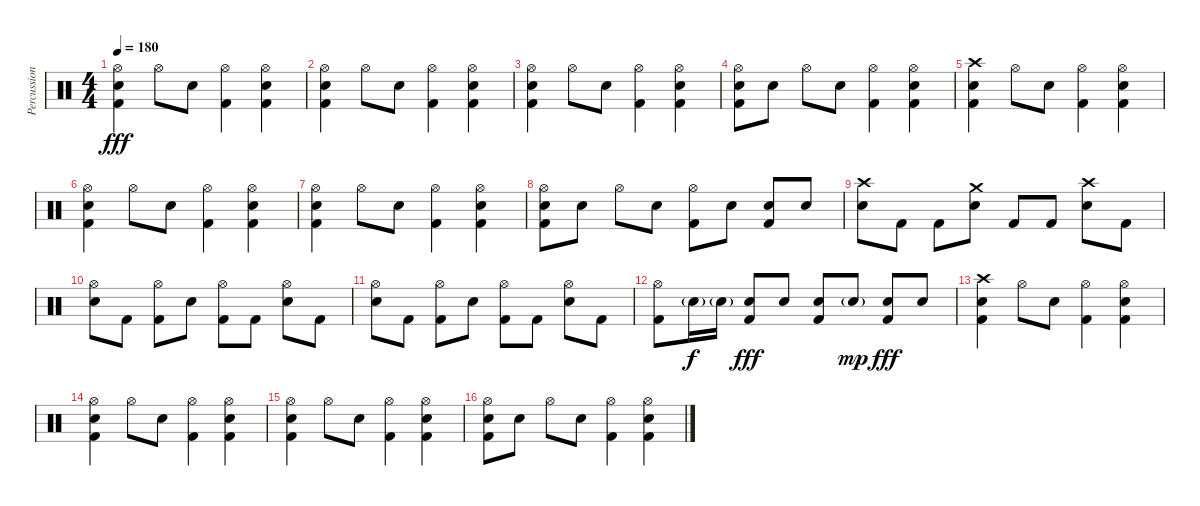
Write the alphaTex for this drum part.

\track ("Percussion" "Percussion") {instrument percussion}
\staff {score}
\articulation defaults
\ts (4 4)
\tempo 180
\clef neutral
\ks c
("Hi-Hat (open)" "Kick (hit) 2" "Electric Snare (hit)").4{dy fff} "Hi-Hat (open)".8 "Electric Snare (hit)".8 ("Hi-Hat (open)" "Kick (hit) 2").4 ("Hi-Hat (open)" "Kick (hit) 2" "Electric Snare (hit)").4 |
("Hi-Hat (open)" "Kick (hit) 2" "Electric Snare (hit)").4 "Hi-Hat (open)".8 "Electric Snare (hit)".8 ("Hi-Hat (open)" "Kick (hit) 2").4 ("Hi-Hat (open)" "Kick (hit) 2" "Electric Snare (hit)").4 |
("Hi-Hat (open)" "Kick (hit) 2" "Electric Snare (hit)").4 "Hi-Hat (open)".8 "Electric Snare (hit)".8 ("Hi-Hat (open)" "Kick (hit) 2").4 ("Hi-Hat (open)" "Kick (hit) 2" "Electric Snare (hit)").4 |
("Hi-Hat (open)" "Kick (hit) 2" "Electric Snare (hit)").8 "Electric Snare (hit)".8 "Hi-Hat (open)".8 "Electric Snare (hit)".8 ("Hi-Hat (open)" "Kick (hit) 2").4 ("Hi-Hat (open)" "Kick (hit) 2" "Electric Snare (hit)").4 |
("Crash high (hit)" "Kick (hit) 2" "Electric Snare (hit)").4 "Hi-Hat (open)".8 "Electric Snare (hit)".8 ("Hi-Hat (open)" "Kick (hit) 2").4 ("Hi-Hat (open)" "Kick (hit) 2" "Electric Snare (hit)").4 |
("Hi-Hat (open)" "Kick (hit) 2" "Electric Snare (hit)").4 "Hi-Hat (open)".8 "Electric Snare (hit)".8 ("Hi-Hat (open)" "Kick (hit) 2").4 ("Hi-Hat (open)" "Kick (hit) 2" "Electric Snare (hit)").4 |
("Hi-Hat (open)" "Kick (hit) 2" "Electric Snare (hit)").4 "Hi-Hat (open)".8 "Electric Snare (hit)".8 ("Hi-Hat (open)" "Kick (hit) 2").4 ("Hi-Hat (open)" "Kick (hit) 2" "Electric Snare (hit)").4 |
("Hi-Hat (open)" "Kick (hit) 2" "Electric Snare (hit)").8 "Electric Snare (hit)".8 "Hi-Hat (open)".8 "Electric Snare (hit)".8 ("Hi-Hat (open)" "Kick (hit) 2").8 "Electric Snare (hit)".8 ("Kick (hit) 2" "Electric Snare (hit)").8 "Electric Snare (hit)".8 |
("Crash high (hit)" "Electric Snare (hit)").8 "Kick (hit) 2".8 "Kick (hit) 2".8 ("Crash medium (hit)" "Electric Snare (hit)").8 "Kick (hit) 2".8 "Kick (hit) 2".8 ("Crash high (hit)" "Electric Snare (hit)").8 "Kick (hit) 2".8 |
("Hi-Hat (open)" "Electric Snare (hit)").8 "Kick (hit) 2".8 ("Hi-Hat (open)" "Kick (hit) 2").8 "Electric Snare (hit)".8 ("Hi-Hat (open)" "Kick (hit) 2").8 "Kick (hit) 2".8 ("Hi-Hat (open)" "Electric Snare (hit)").8 "Kick (hit) 2".8 |
("Hi-Hat (open)" "Electric Snare (hit)").8 "Kick (hit) 2".8 ("Hi-Hat (open)" "Kick (hit) 2").8 "Electric Snare (hit)".8 ("Hi-Hat (open)" "Kick (hit) 2").8 "Kick (hit) 2".8 ("Hi-Hat (open)" "Electric Snare (hit)").8 "Kick (hit) 2".8 |
("Hi-Hat (open)" "Kick (hit) 2").8 "Electric Snare (hit)"{g}.16{dy f} "Electric Snare (hit)"{g}.16 ("Kick (hit) 2" "Electric Snare (hit)").8{dy fff} "Electric Snare (hit)".8 ("Kick (hit) 2" "Electric Snare (hit)").8 "Electric Snare (hit)"{g}.8{dy mp} ("Kick (hit) 2" "Electric Snare (hit)").8{dy fff} "Electric Snare (hit)".8 |
("Crash high (hit)" "Kick (hit) 2" "Electric Snare (hit)").4 "Hi-Hat (open)".8 "Electric Snare (hit)".8 ("Hi-Hat (open)" "Kick (hit) 2").4 ("Hi-Hat (open)" "Kick (hit) 2" "Electric Snare (hit)").4 |
("Hi-Hat (open)" "Kick (hit) 2" "Electric Snare (hit)").4 "Hi-Hat (open)".8 "Electric Snare (hit)".8 ("Hi-Hat (open)" "Kick (hit) 2").4 ("Hi-Hat (open)" "Kick (hit) 2" "Electric Snare (hit)").4 |
("Hi-Hat (open)" "Kick (hit) 2" "Electric Snare (hit)").4 "Hi-Hat (open)".8 "Electric Snare (hit)".8 ("Hi-Hat (open)" "Kick (hit) 2").4 ("Hi-Hat (open)" "Kick (hit) 2" "Electric Snare (hit)").4 |
("Hi-Hat (open)" "Kick (hit) 2" "Electric Snare (hit)").8 "Electric Snare (hit)".8 "Hi-Hat (open)".8 "Electric Snare (hit)".8 ("Hi-Hat (open)" "Kick (hit) 2").4 ("Hi-Hat (open)" "Kick (hit) 2" "Electric Snare (hit)").4
